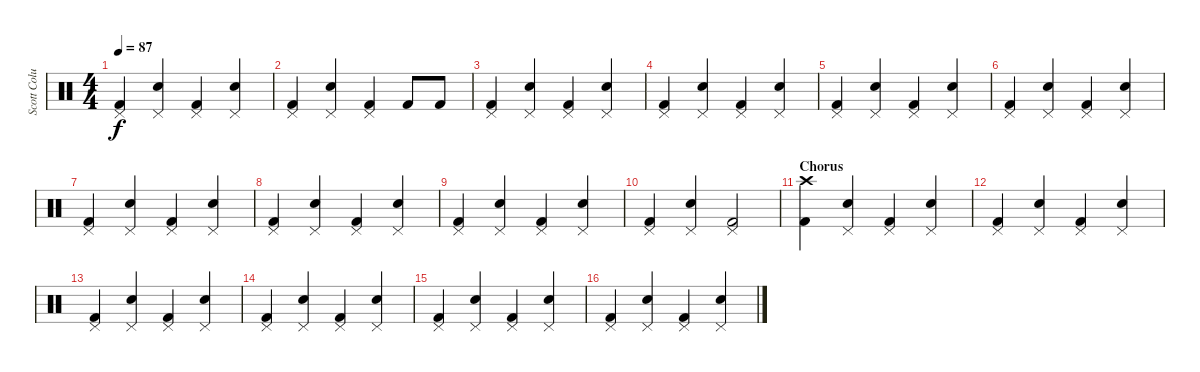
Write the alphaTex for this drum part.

\track ("Scott Columbus" "Scott Colu") {instrument percussion}
\staff {score}
\articulation defaults
\ts (4 4)
\tempo 87
\clef neutral
\ks c
("Pedal Hi-Hat (hit)" "Kick (hit) 2").4{dy f} ("Snare (hit) 2" "Pedal Hi-Hat (hit)").4 ("Pedal Hi-Hat (hit)" "Kick (hit) 2").4 ("Snare (hit) 2" "Pedal Hi-Hat (hit)").4 |
("Pedal Hi-Hat (hit)" "Kick (hit) 2").4 ("Snare (hit) 2" "Pedal Hi-Hat (hit)").4 ("Pedal Hi-Hat (hit)" "Kick (hit) 2").4 "Kick (hit) 2".8 "Kick (hit) 2".8 |
("Pedal Hi-Hat (hit)" "Kick (hit) 2").4 ("Snare (hit) 2" "Pedal Hi-Hat (hit)").4 ("Pedal Hi-Hat (hit)" "Kick (hit) 2").4 ("Snare (hit) 2" "Pedal Hi-Hat (hit)").4 |
("Pedal Hi-Hat (hit)" "Kick (hit) 2").4 ("Snare (hit) 2" "Pedal Hi-Hat (hit)").4 ("Pedal Hi-Hat (hit)" "Kick (hit) 2").4 ("Snare (hit) 2" "Pedal Hi-Hat (hit)").4 |
("Pedal Hi-Hat (hit)" "Kick (hit) 2").4 ("Snare (hit) 2" "Pedal Hi-Hat (hit)").4 ("Pedal Hi-Hat (hit)" "Kick (hit) 2").4 ("Snare (hit) 2" "Pedal Hi-Hat (hit)").4 |
("Pedal Hi-Hat (hit)" "Kick (hit) 2").4 ("Snare (hit) 2" "Pedal Hi-Hat (hit)").4 ("Pedal Hi-Hat (hit)" "Kick (hit) 2").4 ("Snare (hit) 2" "Pedal Hi-Hat (hit)").4 |
("Pedal Hi-Hat (hit)" "Kick (hit) 2").4 ("Snare (hit) 2" "Pedal Hi-Hat (hit)").4 ("Pedal Hi-Hat (hit)" "Kick (hit) 2").4 ("Snare (hit) 2" "Pedal Hi-Hat (hit)").4 |
("Pedal Hi-Hat (hit)" "Kick (hit) 2").4 ("Snare (hit) 2" "Pedal Hi-Hat (hit)").4 ("Pedal Hi-Hat (hit)" "Kick (hit) 2").4 ("Snare (hit) 2" "Pedal Hi-Hat (hit)").4 |
("Pedal Hi-Hat (hit)" "Kick (hit) 2").4 ("Snare (hit) 2" "Pedal Hi-Hat (hit)").4 ("Pedal Hi-Hat (hit)" "Kick (hit) 2").4 ("Snare (hit) 2" "Pedal Hi-Hat (hit)").4 |
("Pedal Hi-Hat (hit)" "Kick (hit) 2").4 ("Snare (hit) 2" "Pedal Hi-Hat (hit)").4 ("Pedal Hi-Hat (hit)" "Kick (hit) 2").2 |
\section ("" "Chorus")
("Crash high (hit)" "Kick (hit) 2").4 ("Snare (hit) 2" "Pedal Hi-Hat (hit)").4 ("Pedal Hi-Hat (hit)" "Kick (hit) 2").4 ("Snare (hit) 2" "Pedal Hi-Hat (hit)").4 |
("Pedal Hi-Hat (hit)" "Kick (hit) 2").4 ("Snare (hit) 2" "Pedal Hi-Hat (hit)").4 ("Pedal Hi-Hat (hit)" "Kick (hit) 2").4 ("Snare (hit) 2" "Pedal Hi-Hat (hit)").4 |
("Pedal Hi-Hat (hit)" "Kick (hit) 2").4 ("Snare (hit) 2" "Pedal Hi-Hat (hit)").4 ("Pedal Hi-Hat (hit)" "Kick (hit) 2").4 ("Snare (hit) 2" "Pedal Hi-Hat (hit)").4 |
("Pedal Hi-Hat (hit)" "Kick (hit) 2").4 ("Snare (hit) 2" "Pedal Hi-Hat (hit)").4 ("Pedal Hi-Hat (hit)" "Kick (hit) 2").4 ("Snare (hit) 2" "Pedal Hi-Hat (hit)").4 |
("Pedal Hi-Hat (hit)" "Kick (hit) 2").4 ("Snare (hit) 2" "Pedal Hi-Hat (hit)").4 ("Pedal Hi-Hat (hit)" "Kick (hit) 2").4 ("Snare (hit) 2" "Pedal Hi-Hat (hit)").4 |
("Pedal Hi-Hat (hit)" "Kick (hit) 2").4 ("Snare (hit) 2" "Pedal Hi-Hat (hit)").4 ("Pedal Hi-Hat (hit)" "Kick (hit) 2").4 ("Snare (hit) 2" "Pedal Hi-Hat (hit)").4
